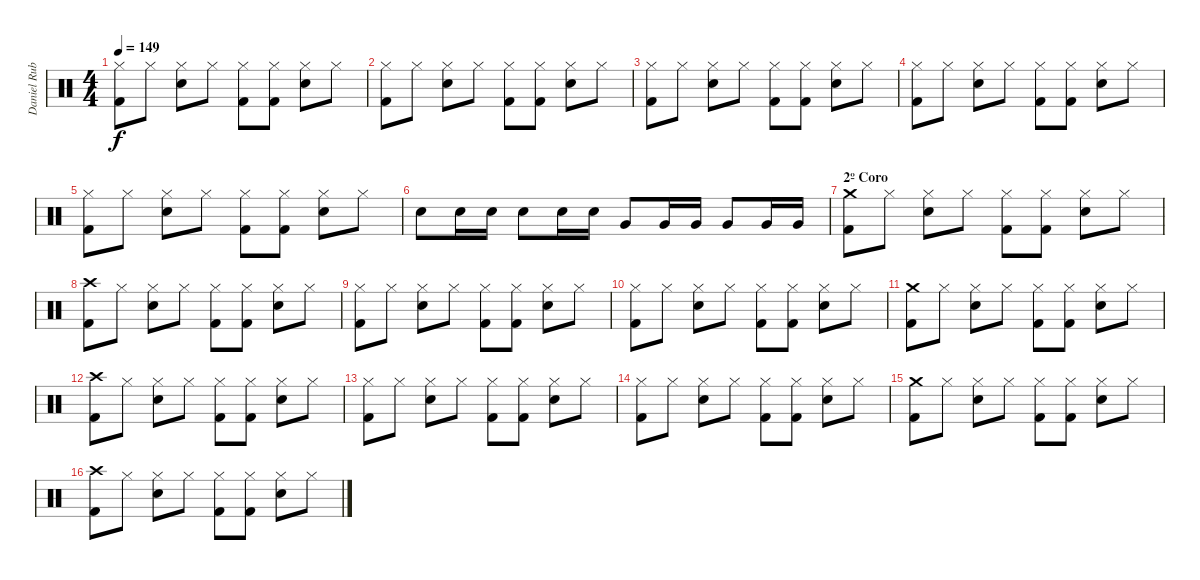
\track ("Daniel Rubiano" "Daniel Rub") {instrument percussion}
\staff {score}
\articulation defaults
\ts (4 4)
\tempo 149
\clef neutral
\ks c
("Hi-Hat (closed)" "Kick (hit) 2").8{dy f} "Hi-Hat (closed)".8 ("Hi-Hat (closed)" "Snare (hit) 2").8 "Hi-Hat (closed)".8 ("Hi-Hat (closed)" "Kick (hit) 2").8 ("Hi-Hat (closed)" "Kick (hit) 2").8 ("Hi-Hat (closed)" "Snare (hit) 2").8 "Hi-Hat (closed)".8 |
("Hi-Hat (closed)" "Kick (hit) 2").8 "Hi-Hat (closed)".8 ("Hi-Hat (closed)" "Snare (hit) 2").8 "Hi-Hat (closed)".8 ("Hi-Hat (closed)" "Kick (hit) 2").8 ("Hi-Hat (closed)" "Kick (hit) 2").8 ("Hi-Hat (closed)" "Snare (hit) 2").8 "Hi-Hat (closed)".8 |
("Hi-Hat (closed)" "Kick (hit) 2").8 "Hi-Hat (closed)".8 ("Hi-Hat (closed)" "Snare (hit) 2").8 "Hi-Hat (closed)".8 ("Hi-Hat (closed)" "Kick (hit) 2").8 ("Hi-Hat (closed)" "Kick (hit) 2").8 ("Hi-Hat (closed)" "Snare (hit) 2").8 "Hi-Hat (closed)".8 |
("Hi-Hat (closed)" "Kick (hit) 2").8 "Hi-Hat (closed)".8 ("Hi-Hat (closed)" "Snare (hit) 2").8 "Hi-Hat (closed)".8 ("Hi-Hat (closed)" "Kick (hit) 2").8 ("Hi-Hat (closed)" "Kick (hit) 2").8 ("Hi-Hat (closed)" "Snare (hit) 2").8 "Hi-Hat (closed)".8 |
("Hi-Hat (closed)" "Kick (hit) 2").8 "Hi-Hat (closed)".8 ("Hi-Hat (closed)" "Snare (hit) 2").8 "Hi-Hat (closed)".8 ("Hi-Hat (closed)" "Kick (hit) 2").8 ("Hi-Hat (closed)" "Kick (hit) 2").8 ("Hi-Hat (closed)" "Snare (hit) 2").8 "Hi-Hat (closed)".8 |
"Snare (hit) 2".8 "Snare (hit) 2".16 "Snare (hit) 2".16 "Snare (hit) 2".8 "Snare (hit) 2".16 "Snare (hit) 2".16 "Very Low Tom (hit)".8 "Very Low Tom (hit)".16 "Very Low Tom (hit)".16 "Very Low Tom (hit)".8 "Very Low Tom (hit)".16 "Very Low Tom (hit)".16 |
\section ("" "2º Coro")
("Crash medium (hit)" "Kick (hit) 2").8 "Hi-Hat (closed)".8 ("Hi-Hat (closed)" "Snare (hit) 2").8 "Hi-Hat (closed)".8 ("Hi-Hat (closed)" "Kick (hit) 2").8 ("Hi-Hat (closed)" "Kick (hit) 2").8 ("Hi-Hat (closed)" "Snare (hit) 2").8 "Hi-Hat (closed)".8 |
("Crash high (hit)" "Kick (hit) 2").8 "Hi-Hat (closed)".8 ("Hi-Hat (closed)" "Snare (hit) 2").8 "Hi-Hat (closed)".8 ("Hi-Hat (closed)" "Kick (hit) 2").8 ("Hi-Hat (closed)" "Kick (hit) 2").8 ("Hi-Hat (closed)" "Snare (hit) 2").8 "Hi-Hat (closed)".8 |
("Hi-Hat (closed)" "Kick (hit) 2").8 "Hi-Hat (closed)".8 ("Hi-Hat (closed)" "Snare (hit) 2").8 "Hi-Hat (closed)".8 ("Hi-Hat (closed)" "Kick (hit) 2").8 ("Hi-Hat (closed)" "Kick (hit) 2").8 ("Hi-Hat (closed)" "Snare (hit) 2").8 "Hi-Hat (closed)".8 |
("Hi-Hat (closed)" "Kick (hit) 2").8 "Hi-Hat (closed)".8 ("Hi-Hat (closed)" "Snare (hit) 2").8 "Hi-Hat (closed)".8 ("Hi-Hat (closed)" "Kick (hit) 2").8 ("Hi-Hat (closed)" "Kick (hit) 2").8 ("Hi-Hat (closed)" "Snare (hit) 2").8 "Hi-Hat (closed)".8 |
("Crash medium (hit)" "Kick (hit) 2").8 "Hi-Hat (closed)".8 ("Hi-Hat (closed)" "Snare (hit) 2").8 "Hi-Hat (closed)".8 ("Hi-Hat (closed)" "Kick (hit) 2").8 ("Hi-Hat (closed)" "Kick (hit) 2").8 ("Hi-Hat (closed)" "Snare (hit) 2").8 "Hi-Hat (closed)".8 |
("Crash high (hit)" "Kick (hit) 2").8 "Hi-Hat (closed)".8 ("Hi-Hat (closed)" "Snare (hit) 2").8 "Hi-Hat (closed)".8 ("Hi-Hat (closed)" "Kick (hit) 2").8 ("Hi-Hat (closed)" "Kick (hit) 2").8 ("Hi-Hat (closed)" "Snare (hit) 2").8 "Hi-Hat (closed)".8 |
("Hi-Hat (closed)" "Kick (hit) 2").8 "Hi-Hat (closed)".8 ("Hi-Hat (closed)" "Snare (hit) 2").8 "Hi-Hat (closed)".8 ("Hi-Hat (closed)" "Kick (hit) 2").8 ("Hi-Hat (closed)" "Kick (hit) 2").8 ("Hi-Hat (closed)" "Snare (hit) 2").8 "Hi-Hat (closed)".8 |
("Hi-Hat (closed)" "Kick (hit) 2").8 "Hi-Hat (closed)".8 ("Hi-Hat (closed)" "Snare (hit) 2").8 "Hi-Hat (closed)".8 ("Hi-Hat (closed)" "Kick (hit) 2").8 ("Hi-Hat (closed)" "Kick (hit) 2").8 ("Hi-Hat (closed)" "Snare (hit) 2").8 "Hi-Hat (closed)".8 |
("Crash medium (hit)" "Kick (hit) 2").8 "Hi-Hat (closed)".8 ("Hi-Hat (closed)" "Snare (hit) 2").8 "Hi-Hat (closed)".8 ("Hi-Hat (closed)" "Kick (hit) 2").8 ("Hi-Hat (closed)" "Kick (hit) 2").8 ("Hi-Hat (closed)" "Snare (hit) 2").8 "Hi-Hat (closed)".8 |
("Crash high (hit)" "Kick (hit) 2").8 "Hi-Hat (closed)".8 ("Hi-Hat (closed)" "Snare (hit) 2").8 "Hi-Hat (closed)".8 ("Hi-Hat (closed)" "Kick (hit) 2").8 ("Hi-Hat (closed)" "Kick (hit) 2").8 ("Hi-Hat (closed)" "Snare (hit) 2").8 "Hi-Hat (closed)".8
